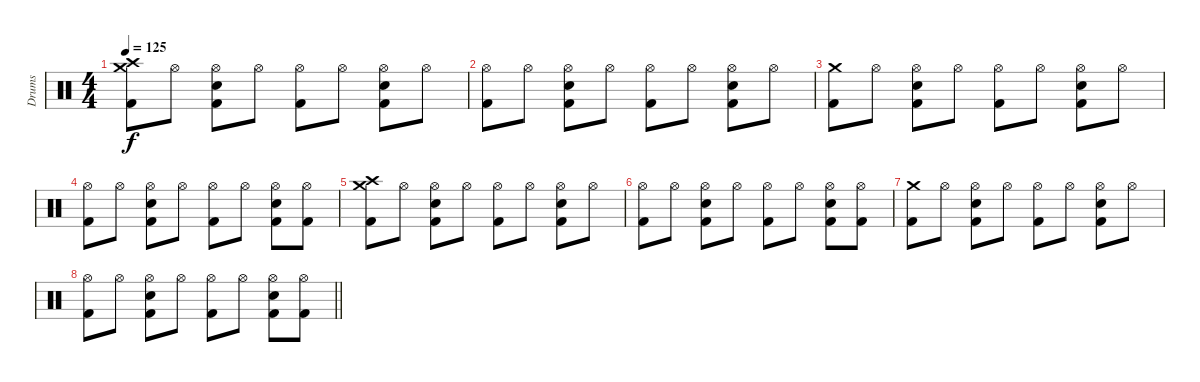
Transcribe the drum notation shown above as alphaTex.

\track ("Drums" "Drums") {instrument percussion}
\staff {score}
\articulation defaults
\ts (4 4)
\tempo 125
\clef neutral
\ks c
("Crash high (hit)" "Crash medium (hit)" "Kick (hit) 2").8{dy f} "Hi-Hat (open)".8 ("Hi-Hat (open)" "Electric Snare (hit)" "Kick (hit) 2").8 "Hi-Hat (open)".8 ("Hi-Hat (open)" "Kick (hit) 2").8 "Hi-Hat (open)".8 ("Hi-Hat (open)" "Electric Snare (hit)" "Kick (hit) 2").8 "Hi-Hat (open)".8 |
("Hi-Hat (open)" "Kick (hit) 2").8 "Hi-Hat (open)".8 ("Hi-Hat (open)" "Electric Snare (hit)" "Kick (hit) 2").8 "Hi-Hat (open)".8 ("Hi-Hat (open)" "Kick (hit) 2").8 "Hi-Hat (open)".8 ("Hi-Hat (open)" "Electric Snare (hit)" "Kick (hit) 2").8 "Hi-Hat (open)".8 |
("Crash medium (hit)" "Kick (hit) 2").8 "Hi-Hat (open)".8 ("Hi-Hat (open)" "Electric Snare (hit)" "Kick (hit) 2").8 "Hi-Hat (open)".8 ("Hi-Hat (open)" "Kick (hit) 2").8 "Hi-Hat (open)".8 ("Hi-Hat (open)" "Electric Snare (hit)" "Kick (hit) 2").8 "Hi-Hat (open)".8 |
("Hi-Hat (open)" "Kick (hit) 2").8 "Hi-Hat (open)".8 ("Hi-Hat (open)" "Electric Snare (hit)" "Kick (hit) 2").8 "Hi-Hat (open)".8 ("Hi-Hat (open)" "Kick (hit) 2").8 "Hi-Hat (open)".8 ("Hi-Hat (open)" "Electric Snare (hit)" "Kick (hit) 2").8 ("Hi-Hat (open)" "Kick (hit) 2").8 |
("Crash high (hit)" "Crash medium (hit)" "Kick (hit) 2").8 "Hi-Hat (open)".8 ("Hi-Hat (open)" "Electric Snare (hit)" "Kick (hit) 2").8 "Hi-Hat (open)".8 ("Hi-Hat (open)" "Kick (hit) 2").8 "Hi-Hat (open)".8 ("Hi-Hat (open)" "Electric Snare (hit)" "Kick (hit) 2").8 "Hi-Hat (open)".8 |
("Hi-Hat (open)" "Kick (hit) 2").8 "Hi-Hat (open)".8 ("Hi-Hat (open)" "Electric Snare (hit)" "Kick (hit) 2").8 "Hi-Hat (open)".8 ("Hi-Hat (open)" "Kick (hit) 2").8 "Hi-Hat (open)".8 ("Hi-Hat (open)" "Electric Snare (hit)" "Kick (hit) 2").8 ("Hi-Hat (open)" "Kick (hit) 2").8 |
("Crash medium (hit)" "Kick (hit) 2").8 "Hi-Hat (open)".8 ("Hi-Hat (open)" "Electric Snare (hit)" "Kick (hit) 2").8 "Hi-Hat (open)".8 ("Hi-Hat (open)" "Kick (hit) 2").8 "Hi-Hat (open)".8 ("Hi-Hat (open)" "Electric Snare (hit)" "Kick (hit) 2").8 "Hi-Hat (open)".8 |
\barLineRight lightlight
("Hi-Hat (open)" "Kick (hit) 2").8 "Hi-Hat (open)".8 ("Hi-Hat (open)" "Electric Snare (hit)" "Kick (hit) 2").8 "Hi-Hat (open)".8 ("Hi-Hat (open)" "Kick (hit) 2").8 "Hi-Hat (open)".8 ("Hi-Hat (open)" "Electric Snare (hit)" "Kick (hit) 2").8 ("Hi-Hat (open)" "Kick (hit) 2").8
